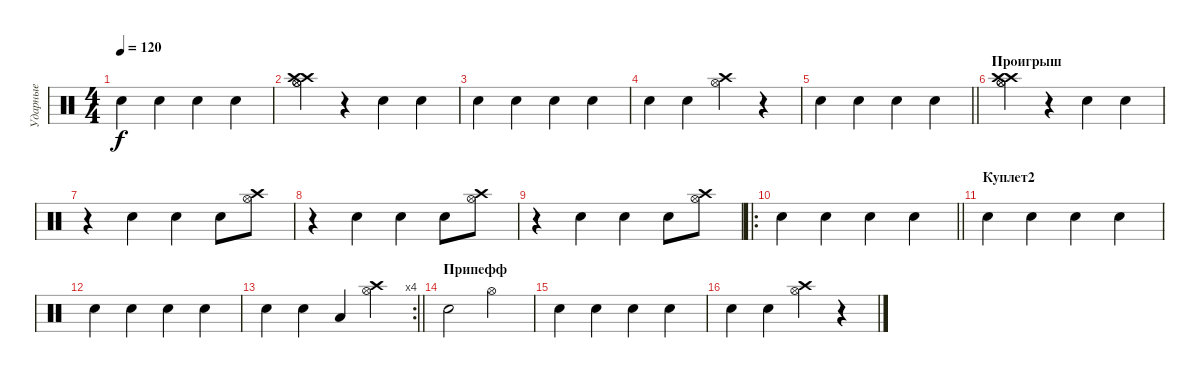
\track ("Ударные" "Ударные") {instrument percussion}
\staff {score}
\articulation defaults
\ts (4 4)
\tempo 120
\clef neutral
\ks c "Electric Snare (hit)".4{dy f} "Electric Snare (hit)".4 "Electric Snare (hit)".4 "Electric Snare (hit)".4
|
("Hi-Hat (open)" "Crash high (hit)" "Hi-Hat (open)" "Crash high (hit)").4 r.4 "Electric Snare (hit)".4 "Electric Snare (hit)".4 |
"Electric Snare (hit)".4 "Electric Snare (hit)".4 "Electric Snare (hit)".4 "Electric Snare (hit)".4 |
"Electric Snare (hit)".4 "Electric Snare (hit)".4 ("Hi-Hat (open)" "Crash high (hit)").4 r.4 |
\barLineRight lightlight "Electric Snare (hit)".4 "Electric Snare (hit)".4 "Electric Snare (hit)".4 "Electric Snare (hit)".4
|
\section ("" "Проигрыш")
("Hi-Hat (open)" "Crash high (hit)" "Hi-Hat (open)" "Crash high (hit)").4 r.4 "Electric Snare (hit)".4 "Electric Snare (hit)".4 |
r.4 "Electric Snare (hit)".4 "Electric Snare (hit)".4 "Electric Snare (hit)".8 ("Hi-Hat (open)" "Crash high (hit)").8 |
r.4 "Electric Snare (hit)".4 "Electric Snare (hit)".4 "Electric Snare (hit)".8 ("Hi-Hat (open)" "Crash high (hit)").8 |
r.4 "Electric Snare (hit)".4 "Electric Snare (hit)".4 "Electric Snare (hit)".8 ("Hi-Hat (open)" "Crash high (hit)").8 |
\ro
\barLineRight lightlight "Electric Snare (hit)".4 "Electric Snare (hit)".4 "Electric Snare (hit)".4 "Electric Snare (hit)".4
|
\section ("" "Куплет2")
"Electric Snare (hit)".4 "Electric Snare (hit)".4 "Electric Snare (hit)".4 "Electric Snare (hit)".4 |
"Electric Snare (hit)".4 "Electric Snare (hit)".4 "Electric Snare (hit)".4 "Electric Snare (hit)".4 |
\rc 4
\barLineRight lightlight "Electric Snare (hit)".4 "Electric Snare (hit)".4 "Low Tom (hit)".4
("Hi-Hat (open)" "Crash high (hit)").4 |
\section ("" "Припефф")
"Electric Snare (hit)".2 "Hi-Hat (open)".2 |
"Electric Snare (hit)".4 "Electric Snare (hit)".4 "Electric Snare (hit)".4 "Electric Snare (hit)".4 |
"Electric Snare (hit)".4 "Electric Snare (hit)".4 ("Hi-Hat (open)" "Crash high (hit)").4 r.4
